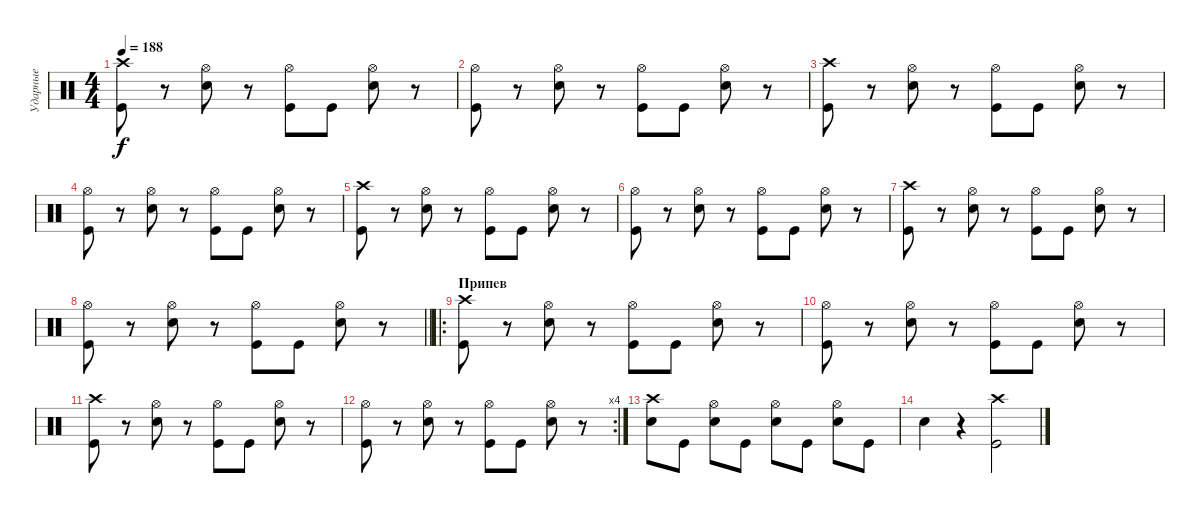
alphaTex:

\track ("Ударные" "Ударные") {instrument percussion}
\staff {score}
\articulation defaults
\ts (4 4)
\tempo 188
\clef neutral
\ks c
("Kick (hit)" "Crash high (hit)").8{dy f} r.8 ("Electric Snare (hit)" "Hi-Hat (open)").8 r.8 ("Kick (hit)" "Hi-Hat (open)").8 "Kick (hit)".8 ("Electric Snare (hit)" "Hi-Hat (open)").8 r.8 |
("Kick (hit)" "Hi-Hat (open)").8 r.8 ("Electric Snare (hit)" "Hi-Hat (open)").8 r.8 ("Kick (hit)" "Hi-Hat (open)").8 "Kick (hit)".8 ("Electric Snare (hit)" "Hi-Hat (open)").8 r.8 |
("Kick (hit)" "Crash high (hit)").8 r.8 ("Electric Snare (hit)" "Hi-Hat (open)").8 r.8 ("Kick (hit)" "Hi-Hat (open)").8 "Kick (hit)".8 ("Electric Snare (hit)" "Hi-Hat (open)").8 r.8 |
("Kick (hit)" "Hi-Hat (open)").8 r.8 ("Electric Snare (hit)" "Hi-Hat (open)").8 r.8 ("Kick (hit)" "Hi-Hat (open)").8 "Kick (hit)".8 ("Electric Snare (hit)" "Hi-Hat (open)").8 r.8 |
("Kick (hit)" "Crash high (hit)").8 r.8 ("Electric Snare (hit)" "Hi-Hat (open)").8 r.8 ("Kick (hit)" "Hi-Hat (open)").8 "Kick (hit)".8 ("Electric Snare (hit)" "Hi-Hat (open)").8 r.8 |
("Kick (hit)" "Hi-Hat (open)").8 r.8 ("Electric Snare (hit)" "Hi-Hat (open)").8 r.8 ("Kick (hit)" "Hi-Hat (open)").8 "Kick (hit)".8 ("Electric Snare (hit)" "Hi-Hat (open)").8 r.8 |
("Kick (hit)" "Crash high (hit)").8 r.8 ("Electric Snare (hit)" "Hi-Hat (open)").8 r.8 ("Kick (hit)" "Hi-Hat (open)").8 "Kick (hit)".8 ("Electric Snare (hit)" "Hi-Hat (open)").8 r.8 |
\barLineRight lightlight
("Kick (hit)" "Hi-Hat (open)").8 r.8 ("Electric Snare (hit)" "Hi-Hat (open)").8 r.8 ("Kick (hit)" "Hi-Hat (open)").8 "Kick (hit)".8 ("Electric Snare (hit)" "Hi-Hat (open)").8 r.8 |
\ro
\section ("" "Припев")
("Kick (hit)" "Crash high (hit)").8 r.8 ("Electric Snare (hit)" "Hi-Hat (open)").8 r.8 ("Kick (hit)" "Hi-Hat (open)").8 "Kick (hit)".8 ("Electric Snare (hit)" "Hi-Hat (open)").8 r.8 |
("Kick (hit)" "Hi-Hat (open)").8 r.8 ("Electric Snare (hit)" "Hi-Hat (open)").8 r.8 ("Kick (hit)" "Hi-Hat (open)").8 "Kick (hit)".8 ("Electric Snare (hit)" "Hi-Hat (open)").8 r.8 |
("Kick (hit)" "Crash high (hit)").8 r.8 ("Electric Snare (hit)" "Hi-Hat (open)").8 r.8 ("Kick (hit)" "Hi-Hat (open)").8 "Kick (hit)".8 ("Electric Snare (hit)" "Hi-Hat (open)").8 r.8 |
\rc 4
("Kick (hit)" "Hi-Hat (open)").8 r.8 ("Electric Snare (hit)" "Hi-Hat (open)").8 r.8 ("Kick (hit)" "Hi-Hat (open)").8 "Kick (hit)".8 ("Electric Snare (hit)" "Hi-Hat (open)").8 r.8 |
("Electric Snare (hit)" "Crash high (hit)").8 "Kick (hit)".8 ("Electric Snare (hit)" "Hi-Hat (open)").8 "Kick (hit)".8 ("Electric Snare (hit)" "Hi-Hat (open)").8 "Kick (hit)".8 ("Electric Snare (hit)" "Hi-Hat (open)").8 "Kick (hit)".8 |
"Electric Snare (hit)".4 r.4 ("Kick (hit)" "Crash high (hit)").2
